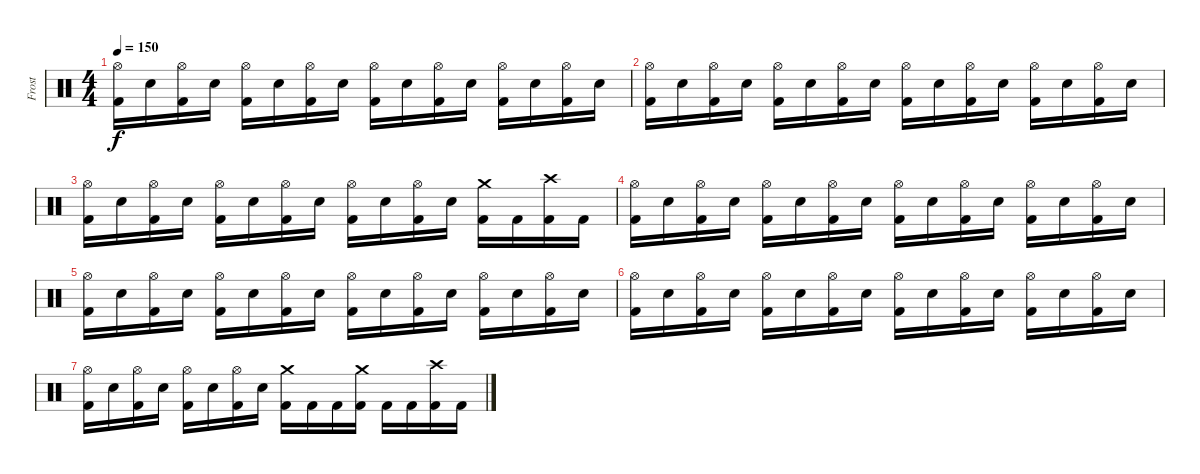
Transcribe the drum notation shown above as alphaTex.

\track ("Frost" "Frost") {instrument percussion}
\staff {score}
\articulation defaults
\ts (4 4)
\tempo 150
\clef neutral
\ks c
("Hi-Hat (open)" "Kick (hit) 2").16{dy f} "Snare (hit) 2".16 ("Hi-Hat (open)" "Kick (hit) 2").16 "Snare (hit) 2".16 ("Hi-Hat (open)" "Kick (hit) 2").16 "Snare (hit) 2".16 ("Hi-Hat (open)" "Kick (hit) 2").16 "Snare (hit) 2".16 ("Hi-Hat (open)" "Kick (hit) 2").16 "Snare (hit) 2".16 ("Hi-Hat (open)" "Kick (hit) 2").16 "Snare (hit) 2".16 ("Hi-Hat (open)" "Kick (hit) 2").16 "Snare (hit) 2".16 ("Hi-Hat (open)" "Kick (hit) 2").16 "Snare (hit) 2".16 |
("Hi-Hat (open)" "Kick (hit) 2").16 "Snare (hit) 2".16 ("Hi-Hat (open)" "Kick (hit) 2").16 "Snare (hit) 2".16 ("Hi-Hat (open)" "Kick (hit) 2").16 "Snare (hit) 2".16 ("Hi-Hat (open)" "Kick (hit) 2").16 "Snare (hit) 2".16 ("Hi-Hat (open)" "Kick (hit) 2").16 "Snare (hit) 2".16 ("Hi-Hat (open)" "Kick (hit) 2").16 "Snare (hit) 2".16 ("Hi-Hat (open)" "Kick (hit) 2").16 "Snare (hit) 2".16 ("Hi-Hat (open)" "Kick (hit) 2").16 "Snare (hit) 2".16 |
("Hi-Hat (open)" "Kick (hit) 2").16 "Snare (hit) 2".16 ("Hi-Hat (open)" "Kick (hit) 2").16 "Snare (hit) 2".16 ("Hi-Hat (open)" "Kick (hit) 2").16 "Snare (hit) 2".16 ("Hi-Hat (open)" "Kick (hit) 2").16 "Snare (hit) 2".16 ("Hi-Hat (open)" "Kick (hit) 2").16 "Snare (hit) 2".16 ("Hi-Hat (open)" "Kick (hit) 2").16 "Snare (hit) 2".16 ("Crash medium (hit)" "Kick (hit) 2").16 "Kick (hit) 2".16 ("Crash high (hit)" "Kick (hit) 2").16 "Kick (hit) 2".16 |
("Hi-Hat (open)" "Kick (hit) 2").16 "Snare (hit) 2".16 ("Hi-Hat (open)" "Kick (hit) 2").16 "Snare (hit) 2".16 ("Hi-Hat (open)" "Kick (hit) 2").16 "Snare (hit) 2".16 ("Hi-Hat (open)" "Kick (hit) 2").16 "Snare (hit) 2".16 ("Hi-Hat (open)" "Kick (hit) 2").16 "Snare (hit) 2".16 ("Hi-Hat (open)" "Kick (hit) 2").16 "Snare (hit) 2".16 ("Hi-Hat (open)" "Kick (hit) 2").16 "Snare (hit) 2".16 ("Hi-Hat (open)" "Kick (hit) 2").16 "Snare (hit) 2".16 |
("Hi-Hat (open)" "Kick (hit) 2").16 "Snare (hit) 2".16 ("Hi-Hat (open)" "Kick (hit) 2").16 "Snare (hit) 2".16 ("Hi-Hat (open)" "Kick (hit) 2").16 "Snare (hit) 2".16 ("Hi-Hat (open)" "Kick (hit) 2").16 "Snare (hit) 2".16 ("Hi-Hat (open)" "Kick (hit) 2").16 "Snare (hit) 2".16 ("Hi-Hat (open)" "Kick (hit) 2").16 "Snare (hit) 2".16 ("Hi-Hat (open)" "Kick (hit) 2").16 "Snare (hit) 2".16 ("Hi-Hat (open)" "Kick (hit) 2").16 "Snare (hit) 2".16 |
("Hi-Hat (open)" "Kick (hit) 2").16 "Snare (hit) 2".16 ("Hi-Hat (open)" "Kick (hit) 2").16 "Snare (hit) 2".16 ("Hi-Hat (open)" "Kick (hit) 2").16 "Snare (hit) 2".16 ("Hi-Hat (open)" "Kick (hit) 2").16 "Snare (hit) 2".16 ("Hi-Hat (open)" "Kick (hit) 2").16 "Snare (hit) 2".16 ("Hi-Hat (open)" "Kick (hit) 2").16 "Snare (hit) 2".16 ("Hi-Hat (open)" "Kick (hit) 2").16 "Snare (hit) 2".16 ("Hi-Hat (open)" "Kick (hit) 2").16 "Snare (hit) 2".16 |
("Hi-Hat (open)" "Kick (hit) 2").16 "Snare (hit) 2".16 ("Hi-Hat (open)" "Kick (hit) 2").16 "Snare (hit) 2".16 ("Hi-Hat (open)" "Kick (hit) 2").16 "Snare (hit) 2".16 ("Hi-Hat (open)" "Kick (hit) 2").16 "Snare (hit) 2".16 ("Crash medium (hit)" "Kick (hit) 2").16 "Kick (hit) 2".16 "Kick (hit) 2".16 ("Crash medium (hit)" "Kick (hit) 2").16 "Kick (hit) 2".16 "Kick (hit) 2".16 ("Crash high (hit)" "Kick (hit) 2").16 "Kick (hit) 2".16
